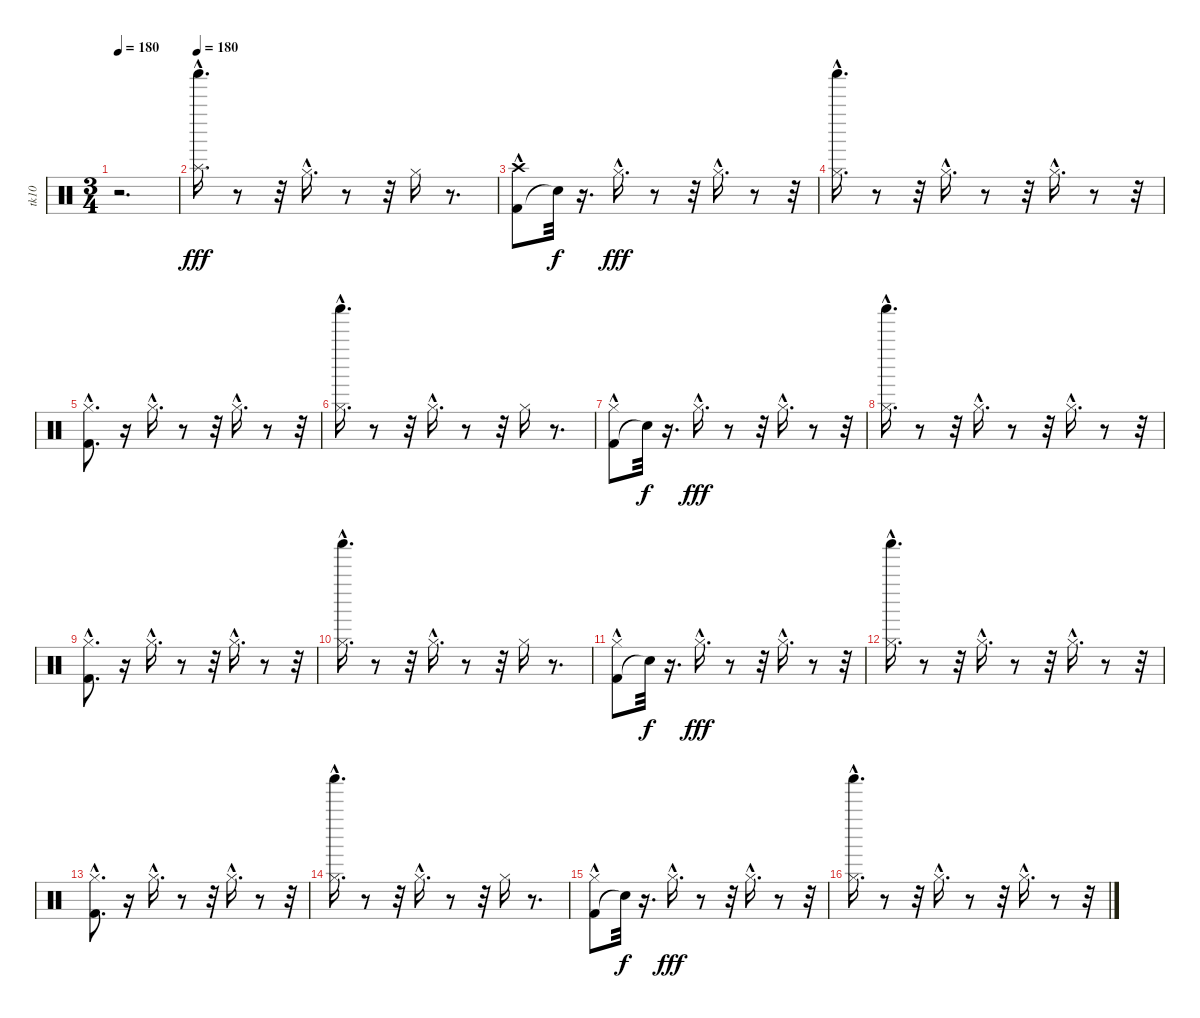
\track ("tk10" "tk10") {instrument percussion}
\staff {score}
\articulation defaults
\ts (3 4)
\tempo 180
\clef neutral
\ks c
r.2{d dy fff} |
\tempo 180
("Shaker (hit)"{hac} "Splash (hit)"{hac}).16{d balance 8} r.8 r.32 "Hi-Hat (closed)"{hac}.16{d} r.8 r.32 "Hi-Hat (closed)".16 r.8{d} |
("Kick (hit) 2" "Crash high (hit)"{hac}).8 "Snare (hit)"{t}.32{dy f} r.16{d} "Hi-Hat (closed)"{hac}.16{d dy fff} r.8 r.32 "Hi-Hat (closed)"{hac}.16{d} r.8 r.32 |
("Shaker (hit)"{hac} "Hi-Hat (closed)"{hac}).16{d} r.8 r.32 "Hi-Hat (closed)"{hac}.16{d} r.8 r.32 "Hi-Hat (closed)"{hac}.16{d} r.8 r.32 |
("Kick (hit) 2"{hac} "Hi-Hat (closed)"{hac}).8{d} r.16 "Hi-Hat (closed)"{hac}.16{d} r.8 r.32 "Hi-Hat (closed)"{hac}.16{d} r.8 r.32 |
("Shaker (hit)"{hac} "Hi-Hat (closed)"{hac}).16{d} r.8 r.32 "Hi-Hat (closed)"{hac}.16{d} r.8 r.32 "Hi-Hat (closed)".16 r.8{d} |
("Kick (hit) 2" "Hi-Hat (closed)"{hac}).8 "Snare (hit)"{t}.32{dy f} r.16{d} "Hi-Hat (closed)"{hac}.16{d dy fff} r.8 r.32 "Hi-Hat (closed)"{hac}.16{d} r.8 r.32 |
("Shaker (hit)"{hac} "Hi-Hat (closed)"{hac}).16{d} r.8 r.32 "Hi-Hat (closed)"{hac}.16{d} r.8 r.32 "Hi-Hat (closed)"{hac}.16{d} r.8 r.32 |
("Kick (hit) 2"{hac} "Hi-Hat (closed)"{hac}).8{d} r.16 "Hi-Hat (closed)"{hac}.16{d} r.8 r.32 "Hi-Hat (closed)"{hac}.16{d} r.8 r.32 |
("Shaker (hit)"{hac} "Hi-Hat (closed)"{hac}).16{d} r.8 r.32 "Hi-Hat (closed)"{hac}.16{d} r.8 r.32 "Hi-Hat (closed)".16 r.8{d} |
("Kick (hit) 2" "Hi-Hat (closed)"{hac}).8 "Snare (hit)"{t}.32{dy f} r.16{d} "Hi-Hat (closed)"{hac}.16{d dy fff} r.8 r.32 "Hi-Hat (closed)"{hac}.16{d} r.8 r.32 |
("Shaker (hit)"{hac} "Hi-Hat (closed)"{hac}).16{d} r.8 r.32 "Hi-Hat (closed)"{hac}.16{d} r.8 r.32 "Hi-Hat (closed)"{hac}.16{d} r.8 r.32 |
("Kick (hit) 2"{hac} "Hi-Hat (closed)"{hac}).8{d} r.16 "Hi-Hat (closed)"{hac}.16{d} r.8 r.32 "Hi-Hat (closed)"{hac}.16{d} r.8 r.32 |
("Shaker (hit)"{hac} "Hi-Hat (closed)"{hac}).16{d} r.8 r.32 "Hi-Hat (closed)"{hac}.16{d} r.8 r.32 "Hi-Hat (closed)".16 r.8{d} |
("Kick (hit) 2" "Hi-Hat (closed)"{hac}).8 "Snare (hit)"{t}.32{dy f} r.16{d} "Hi-Hat (closed)"{hac}.16{d dy fff} r.8 r.32 "Hi-Hat (closed)"{hac}.16{d} r.8 r.32 |
("Shaker (hit)"{hac} "Hi-Hat (closed)"{hac}).16{d} r.8 r.32 "Hi-Hat (closed)"{hac}.16{d} r.8 r.32 "Hi-Hat (closed)"{hac}.16{d} r.8 r.32
